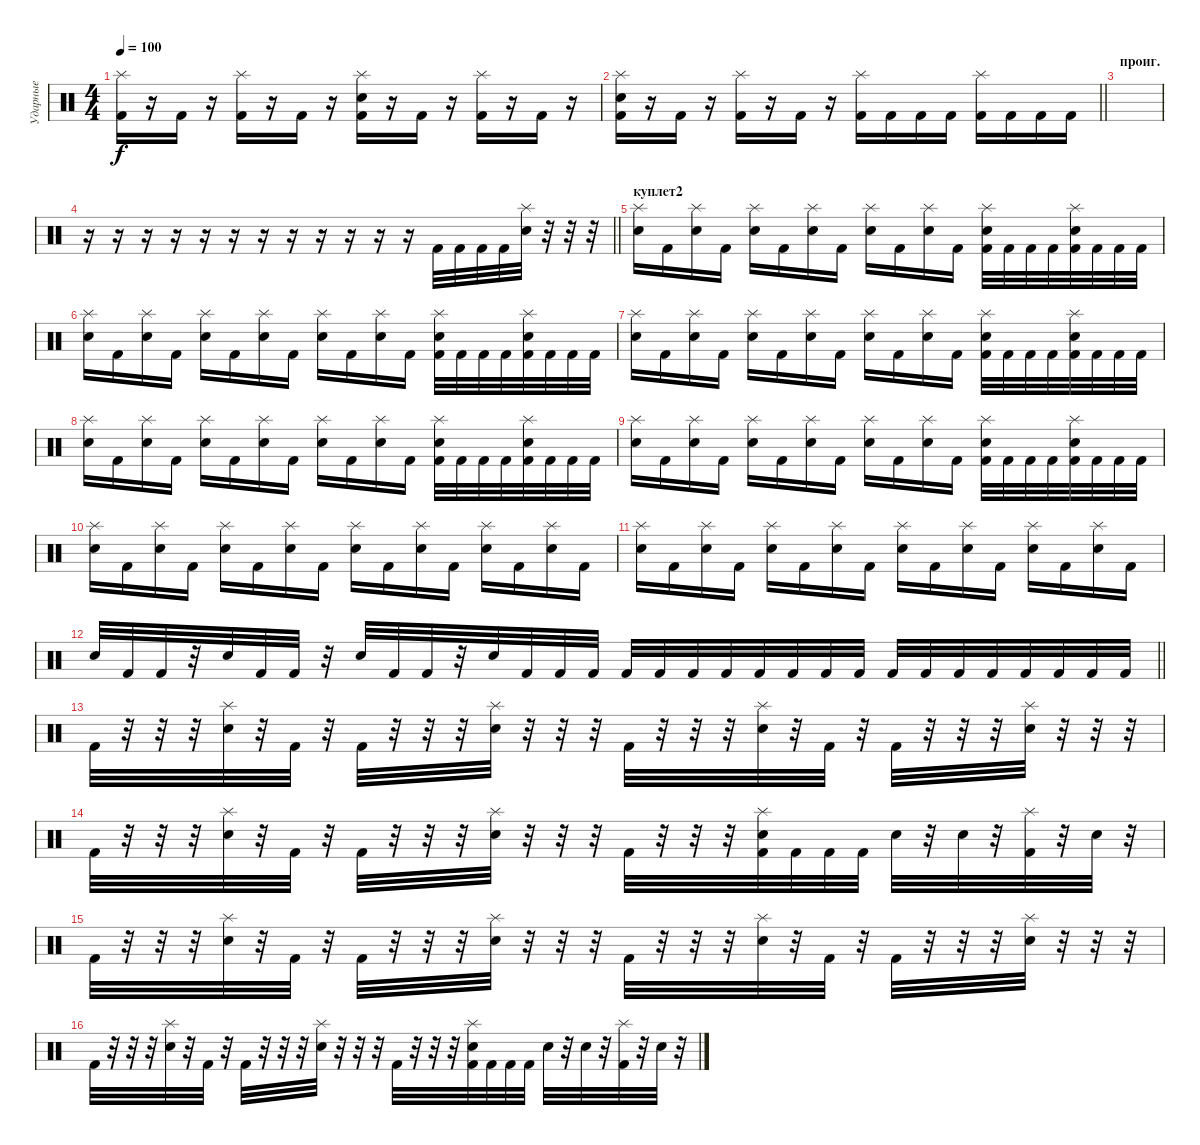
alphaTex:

\track ("Ударные" "Ударные") {instrument percussion}
\staff {score}
\articulation defaults
\ts (4 4)
\tempo 100
\clef neutral
\ks c
("Splash (hit)" "Kick (hit) 2").16{dy f} r.16 "Kick (hit) 2".16 r.16 ("Splash (hit)" "Kick (hit) 2").16 r.16 "Kick (hit) 2".16 r.16 ("Splash (hit)" "Electric Snare (hit)" "Kick (hit) 2").16 r.16 "Kick (hit) 2".16 r.16 ("Splash (hit)" "Kick (hit) 2").16 r.16 "Kick (hit) 2".16 r.16 |
\barLineRight lightlight
("Splash (hit)" "Electric Snare (hit)" "Kick (hit) 2").16 r.16 "Kick (hit) 2".16 r.16 ("Splash (hit)" "Kick (hit) 2").16 r.16 "Kick (hit) 2".16 r.16 ("Splash (hit)" "Kick (hit) 2").16 "Kick (hit) 2".16 "Kick (hit) 2".16 "Kick (hit) 2".16 ("Splash (hit)" "Kick (hit) 2").16 "Kick (hit) 2".16 "Kick (hit) 2".16 "Kick (hit) 2".16 |
\section ("" "проиг.")
|
\barLineRight lightlight
r.16 r.16 r.16 r.16 r.16 r.16 r.16 r.16 r.16 r.16 r.16 r.16 "Kick (hit) 2".32 "Kick (hit) 2".32 "Kick (hit) 2".32 "Kick (hit) 2".32 ("Splash (hit)" "Electric Snare (hit)").32 r.32 r.32 r.32 |
\section ("" "куплет2")
("Splash (hit)" "Electric Snare (hit)").16 "Kick (hit) 2".16 ("Splash (hit)" "Electric Snare (hit)").16 "Kick (hit) 2".16 ("Splash (hit)" "Electric Snare (hit)").16 "Kick (hit) 2".16 ("Splash (hit)" "Electric Snare (hit)").16 "Kick (hit) 2".16 ("Splash (hit)" "Electric Snare (hit)").16 "Kick (hit) 2".16 ("Splash (hit)" "Electric Snare (hit)").16 "Kick (hit) 2".16 ("Splash (hit)" "Electric Snare (hit)" "Kick (hit) 2").32 "Kick (hit) 2".32 "Kick (hit) 2".32 "Kick (hit) 2".32 ("Splash (hit)" "Electric Snare (hit)" "Kick (hit) 2").32 "Kick (hit) 2".32 "Kick (hit) 2".32 "Kick (hit) 2".32 |
("Splash (hit)" "Electric Snare (hit)").16 "Kick (hit) 2".16 ("Splash (hit)" "Electric Snare (hit)").16 "Kick (hit) 2".16 ("Splash (hit)" "Electric Snare (hit)").16 "Kick (hit) 2".16 ("Splash (hit)" "Electric Snare (hit)").16 "Kick (hit) 2".16 ("Splash (hit)" "Electric Snare (hit)").16 "Kick (hit) 2".16 ("Splash (hit)" "Electric Snare (hit)").16 "Kick (hit) 2".16 ("Splash (hit)" "Electric Snare (hit)" "Kick (hit) 2").32 "Kick (hit) 2".32 "Kick (hit) 2".32 "Kick (hit) 2".32 ("Splash (hit)" "Electric Snare (hit)" "Kick (hit) 2").32 "Kick (hit) 2".32 "Kick (hit) 2".32 "Kick (hit) 2".32 |
("Splash (hit)" "Electric Snare (hit)").16 "Kick (hit) 2".16 ("Splash (hit)" "Electric Snare (hit)").16 "Kick (hit) 2".16 ("Splash (hit)" "Electric Snare (hit)").16 "Kick (hit) 2".16 ("Splash (hit)" "Electric Snare (hit)").16 "Kick (hit) 2".16 ("Splash (hit)" "Electric Snare (hit)").16 "Kick (hit) 2".16 ("Splash (hit)" "Electric Snare (hit)").16 "Kick (hit) 2".16 ("Splash (hit)" "Electric Snare (hit)" "Kick (hit) 2").32 "Kick (hit) 2".32 "Kick (hit) 2".32 "Kick (hit) 2".32 ("Splash (hit)" "Electric Snare (hit)" "Kick (hit) 2").32 "Kick (hit) 2".32 "Kick (hit) 2".32 "Kick (hit) 2".32 |
("Splash (hit)" "Electric Snare (hit)").16 "Kick (hit) 2".16 ("Splash (hit)" "Electric Snare (hit)").16 "Kick (hit) 2".16 ("Splash (hit)" "Electric Snare (hit)").16 "Kick (hit) 2".16 ("Splash (hit)" "Electric Snare (hit)").16 "Kick (hit) 2".16 ("Splash (hit)" "Electric Snare (hit)").16 "Kick (hit) 2".16 ("Splash (hit)" "Electric Snare (hit)").16 "Kick (hit) 2".16 ("Splash (hit)" "Electric Snare (hit)" "Kick (hit) 2").32 "Kick (hit) 2".32 "Kick (hit) 2".32 "Kick (hit) 2".32 ("Splash (hit)" "Electric Snare (hit)" "Kick (hit) 2").32 "Kick (hit) 2".32 "Kick (hit) 2".32 "Kick (hit) 2".32 |
("Splash (hit)" "Electric Snare (hit)").16 "Kick (hit) 2".16 ("Splash (hit)" "Electric Snare (hit)").16 "Kick (hit) 2".16 ("Splash (hit)" "Electric Snare (hit)").16 "Kick (hit) 2".16 ("Splash (hit)" "Electric Snare (hit)").16 "Kick (hit) 2".16 ("Splash (hit)" "Electric Snare (hit)").16 "Kick (hit) 2".16 ("Splash (hit)" "Electric Snare (hit)").16 "Kick (hit) 2".16 ("Splash (hit)" "Electric Snare (hit)" "Kick (hit) 2").32 "Kick (hit) 2".32 "Kick (hit) 2".32 "Kick (hit) 2".32 ("Splash (hit)" "Electric Snare (hit)" "Kick (hit) 2").32 "Kick (hit) 2".32 "Kick (hit) 2".32 "Kick (hit) 2".32 |
("Splash (hit)" "Electric Snare (hit)").16 "Kick (hit) 2".16 ("Splash (hit)" "Electric Snare (hit)").16 "Kick (hit) 2".16 ("Splash (hit)" "Electric Snare (hit)").16 "Kick (hit) 2".16 ("Splash (hit)" "Electric Snare (hit)").16 "Kick (hit) 2".16 ("Splash (hit)" "Electric Snare (hit)").16 "Kick (hit) 2".16 ("Splash (hit)" "Electric Snare (hit)").16 "Kick (hit) 2".16 ("Splash (hit)" "Electric Snare (hit)").16 "Kick (hit) 2".16 ("Splash (hit)" "Electric Snare (hit)").16 "Kick (hit) 2".16 |
("Splash (hit)" "Electric Snare (hit)").16 "Kick (hit) 2".16 ("Splash (hit)" "Electric Snare (hit)").16 "Kick (hit) 2".16 ("Splash (hit)" "Electric Snare (hit)").16 "Kick (hit) 2".16 ("Splash (hit)" "Electric Snare (hit)").16 "Kick (hit) 2".16 ("Splash (hit)" "Electric Snare (hit)").16 "Kick (hit) 2".16 ("Splash (hit)" "Electric Snare (hit)").16 "Kick (hit) 2".16 ("Splash (hit)" "Electric Snare (hit)").16 "Kick (hit) 2".16 ("Splash (hit)" "Electric Snare (hit)").16 "Kick (hit) 2".16 |
\barLineRight lightlight "Electric Snare (hit)".32 "Kick (hit) 2".32 "Kick (hit) 2".32
r.32 "Electric Snare (hit)".32 "Kick (hit) 2".32 "Kick (hit) 2".32 r.32 "Electric Snare (hit)".32 "Kick (hit) 2".32 "Kick (hit) 2".32 r.32 "Electric Snare (hit)".32 "Kick (hit) 2".32 "Kick (hit) 2".32 "Kick (hit) 2".32 "Kick (hit) 2".32 "Kick (hit) 2".32 "Kick (hit) 2".32 "Kick (hit) 2".32 "Kick (hit) 2".32 "Kick (hit) 2".32 "Kick (hit) 2".32 "Kick (hit) 2".32 "Kick (hit) 2".32 "Kick (hit) 2".32 "Kick (hit) 2".32 "Kick (hit) 2".32 "Kick (hit) 2".32 "Kick (hit) 2".32 "Kick (hit) 2".32 "Kick (hit) 2".32 |
\section ("" "")
"Kick (hit) 2".32 r.32 r.32 r.32 ("Splash (hit)" "Electric Snare (hit)").32 r.32 "Kick (hit) 2".32 r.32 "Kick (hit) 2".32 r.32 r.32 r.32 ("Splash (hit)" "Electric Snare (hit)").32 r.32 r.32 r.32 "Kick (hit) 2".32 r.32 r.32 r.32 ("Splash (hit)" "Electric Snare (hit)").32 r.32 "Kick (hit) 2".32 r.32 "Kick (hit) 2".32 r.32 r.32 r.32 ("Splash (hit)" "Electric Snare (hit)").32 r.32 r.32 r.32 |
"Kick (hit) 2".32 r.32 r.32 r.32 ("Splash (hit)" "Electric Snare (hit)").32 r.32 "Kick (hit) 2".32 r.32 "Kick (hit) 2".32 r.32 r.32 r.32 ("Splash (hit)" "Electric Snare (hit)").32 r.32 r.32 r.32 "Kick (hit) 2".32 r.32 r.32 r.32 ("Splash (hit)" "Electric Snare (hit)" "Kick (hit) 2").32 "Kick (hit) 2".32 "Kick (hit) 2".32 "Kick (hit) 2".32 "Electric Snare (hit)".32 r.32 "Electric Snare (hit)".32 r.32 ("Splash (hit)" "Kick (hit) 2").32 r.32 "Electric Snare (hit)".32 r.32 |
"Kick (hit) 2".32 r.32 r.32 r.32 ("Splash (hit)" "Electric Snare (hit)").32 r.32 "Kick (hit) 2".32 r.32 "Kick (hit) 2".32 r.32 r.32 r.32 ("Splash (hit)" "Electric Snare (hit)").32 r.32 r.32 r.32 "Kick (hit) 2".32 r.32 r.32 r.32 ("Splash (hit)" "Electric Snare (hit)").32 r.32 "Kick (hit) 2".32 r.32 "Kick (hit) 2".32 r.32 r.32 r.32 ("Splash (hit)" "Electric Snare (hit)").32 r.32 r.32 r.32 |
"Kick (hit) 2".32 r.32 r.32 r.32 ("Splash (hit)" "Electric Snare (hit)").32 r.32 "Kick (hit) 2".32 r.32 "Kick (hit) 2".32 r.32 r.32 r.32 ("Splash (hit)" "Electric Snare (hit)").32 r.32 r.32 r.32 "Kick (hit) 2".32 r.32 r.32 r.32 ("Splash (hit)" "Electric Snare (hit)" "Kick (hit) 2").32 "Kick (hit) 2".32 "Kick (hit) 2".32 "Kick (hit) 2".32 "Electric Snare (hit)".32 r.32 "Electric Snare (hit)".32 r.32 ("Splash (hit)" "Kick (hit) 2").32 r.32 "Electric Snare (hit)".32 r.32
